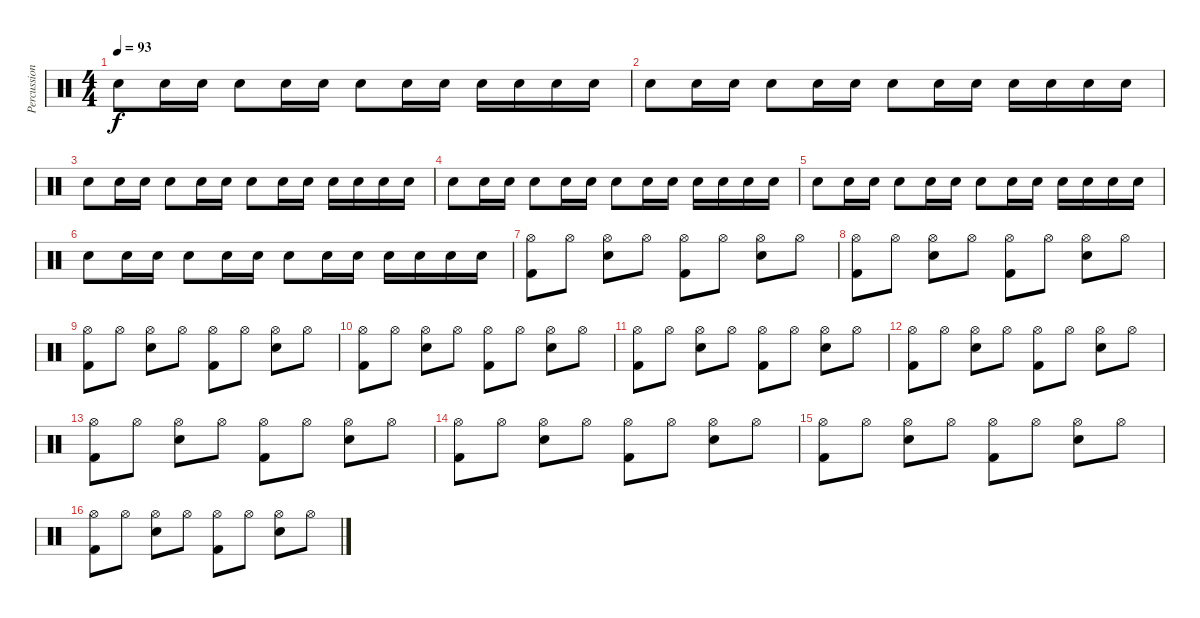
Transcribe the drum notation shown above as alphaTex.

\track ("Percussion" "Percussion") {instrument percussion}
\staff {score}
\articulation defaults
\ts (4 4)
\tempo 93
\clef neutral
\ks c "Snare (hit) 2".8{dy f} "Snare (hit) 2".16 "Snare (hit) 2".16 "Snare (hit) 2".8 "Snare (hit) 2".16 "Snare (hit) 2".16 "Snare (hit) 2".8 "Snare (hit) 2".16 "Snare (hit) 2".16 "Snare (hit) 2".16 "Snare (hit) 2".16 "Snare (hit) 2".16 "Snare (hit) 2".16
|
"Snare (hit) 2".8 "Snare (hit) 2".16 "Snare (hit) 2".16 "Snare (hit) 2".8 "Snare (hit) 2".16 "Snare (hit) 2".16 "Snare (hit) 2".8 "Snare (hit) 2".16 "Snare (hit) 2".16 "Snare (hit) 2".16 "Snare (hit) 2".16 "Snare (hit) 2".16 "Snare (hit) 2".16 |
"Snare (hit) 2".8 "Snare (hit) 2".16 "Snare (hit) 2".16 "Snare (hit) 2".8 "Snare (hit) 2".16 "Snare (hit) 2".16 "Snare (hit) 2".8 "Snare (hit) 2".16 "Snare (hit) 2".16 "Snare (hit) 2".16 "Snare (hit) 2".16 "Snare (hit) 2".16 "Snare (hit) 2".16 |
"Snare (hit) 2".8 "Snare (hit) 2".16 "Snare (hit) 2".16 "Snare (hit) 2".8 "Snare (hit) 2".16 "Snare (hit) 2".16 "Snare (hit) 2".8 "Snare (hit) 2".16 "Snare (hit) 2".16 "Snare (hit) 2".16 "Snare (hit) 2".16 "Snare (hit) 2".16 "Snare (hit) 2".16 |
"Snare (hit) 2".8 "Snare (hit) 2".16 "Snare (hit) 2".16 "Snare (hit) 2".8 "Snare (hit) 2".16 "Snare (hit) 2".16 "Snare (hit) 2".8 "Snare (hit) 2".16 "Snare (hit) 2".16 "Snare (hit) 2".16 "Snare (hit) 2".16 "Snare (hit) 2".16 "Snare (hit) 2".16 |
"Snare (hit) 2".8 "Snare (hit) 2".16 "Snare (hit) 2".16 "Snare (hit) 2".8 "Snare (hit) 2".16 "Snare (hit) 2".16 "Snare (hit) 2".8 "Snare (hit) 2".16 "Snare (hit) 2".16 "Snare (hit) 2".16 "Snare (hit) 2".16 "Snare (hit) 2".16 "Snare (hit) 2".16 |
("Hi-Hat (open)" "Kick (hit) 2").8 "Hi-Hat (open)".8 ("Hi-Hat (open)" "Snare (hit) 2").8 "Hi-Hat (open)".8 ("Hi-Hat (open)" "Kick (hit) 2").8 "Hi-Hat (open)".8 ("Hi-Hat (open)" "Snare (hit) 2").8 "Hi-Hat (open)".8 |
("Hi-Hat (open)" "Kick (hit) 2").8 "Hi-Hat (open)".8 ("Hi-Hat (open)" "Snare (hit) 2").8 "Hi-Hat (open)".8 ("Hi-Hat (open)" "Kick (hit) 2").8 "Hi-Hat (open)".8 ("Hi-Hat (open)" "Snare (hit) 2").8 "Hi-Hat (open)".8 |
("Hi-Hat (open)" "Kick (hit) 2").8 "Hi-Hat (open)".8 ("Hi-Hat (open)" "Snare (hit) 2").8 "Hi-Hat (open)".8 ("Hi-Hat (open)" "Kick (hit) 2").8 "Hi-Hat (open)".8 ("Hi-Hat (open)" "Snare (hit) 2").8 "Hi-Hat (open)".8 |
("Hi-Hat (open)" "Kick (hit) 2").8 "Hi-Hat (open)".8 ("Hi-Hat (open)" "Snare (hit) 2").8 "Hi-Hat (open)".8 ("Hi-Hat (open)" "Kick (hit) 2").8 "Hi-Hat (open)".8 ("Hi-Hat (open)" "Snare (hit) 2").8 "Hi-Hat (open)".8 |
("Hi-Hat (open)" "Kick (hit) 2").8 "Hi-Hat (open)".8 ("Hi-Hat (open)" "Snare (hit) 2").8 "Hi-Hat (open)".8 ("Hi-Hat (open)" "Kick (hit) 2").8 "Hi-Hat (open)".8 ("Hi-Hat (open)" "Snare (hit) 2").8 "Hi-Hat (open)".8 |
("Hi-Hat (open)" "Kick (hit) 2").8 "Hi-Hat (open)".8 ("Hi-Hat (open)" "Snare (hit) 2").8 "Hi-Hat (open)".8 ("Hi-Hat (open)" "Kick (hit) 2").8 "Hi-Hat (open)".8 ("Hi-Hat (open)" "Snare (hit) 2").8 "Hi-Hat (open)".8 |
("Hi-Hat (open)" "Kick (hit) 2").8 "Hi-Hat (open)".8 ("Hi-Hat (open)" "Snare (hit) 2").8 "Hi-Hat (open)".8 ("Hi-Hat (open)" "Kick (hit) 2").8 "Hi-Hat (open)".8 ("Hi-Hat (open)" "Snare (hit) 2").8 "Hi-Hat (open)".8 |
("Hi-Hat (open)" "Kick (hit) 2").8 "Hi-Hat (open)".8 ("Hi-Hat (open)" "Snare (hit) 2").8 "Hi-Hat (open)".8 ("Hi-Hat (open)" "Kick (hit) 2").8 "Hi-Hat (open)".8 ("Hi-Hat (open)" "Snare (hit) 2").8 "Hi-Hat (open)".8 |
("Hi-Hat (open)" "Kick (hit) 2").8 "Hi-Hat (open)".8 ("Hi-Hat (open)" "Snare (hit) 2").8 "Hi-Hat (open)".8 ("Hi-Hat (open)" "Kick (hit) 2").8 "Hi-Hat (open)".8 ("Hi-Hat (open)" "Snare (hit) 2").8 "Hi-Hat (open)".8 |
("Hi-Hat (open)" "Kick (hit) 2").8 "Hi-Hat (open)".8 ("Hi-Hat (open)" "Snare (hit) 2").8 "Hi-Hat (open)".8 ("Hi-Hat (open)" "Kick (hit) 2").8 "Hi-Hat (open)".8 ("Hi-Hat (open)" "Snare (hit) 2").8 "Hi-Hat (open)".8
